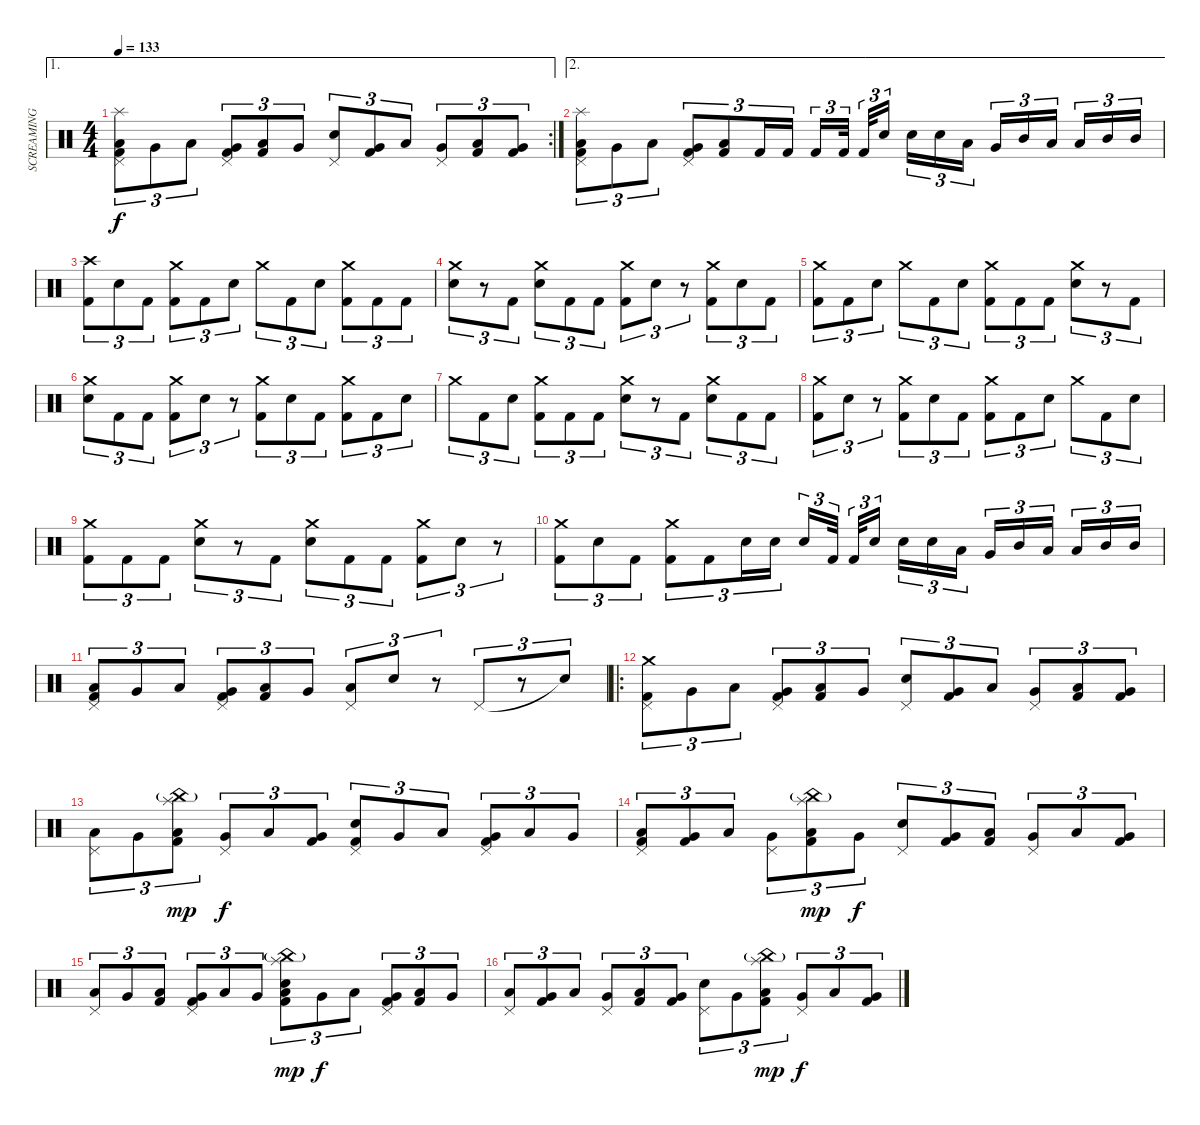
\track ("SCREAMING TOASTER OVEN" "SCREAMING ") {instrument percussion}
\staff {score}
\articulation defaults
\ae 1
\rc 2
\ts (4 4)
\tempo 133
\clef neutral
\ks c
("Splash (hit)" "Pedal Hi-Hat (hit)" "Low Floor Tom (hit)" "Kick (hit) 2").8{tu (3 2) dy f} "Very Low Tom (hit)".8{tu (3 2)} "Low Floor Tom (hit)".8{tu (3 2)} ("Pedal Hi-Hat (hit)" "Very Low Tom (hit)" "Kick (hit) 2").8{tu (3 2)} ("Low Floor Tom (hit)" "Kick (hit) 2").8{tu (3 2)} "Very Low Tom (hit)".8{tu (3 2)} ("Pedal Hi-Hat (hit)" "Electric Snare (hit)").8{tu (3 2)} ("Very Low Tom (hit)" "Kick (hit) 2").8{tu (3 2)} "Low Floor Tom (hit)".8{tu (3 2)} ("Pedal Hi-Hat (hit)" "Very Low Tom (hit)").8{tu (3 2)} ("Low Floor Tom (hit)" "Kick (hit) 2").8{tu (3 2)} ("Very Low Tom (hit)" "Kick (hit) 2").8{tu (3 2)} |
\ae 2
("Splash (hit)" "Pedal Hi-Hat (hit)" "Low Floor Tom (hit)" "Kick (hit) 2").8{tu (3 2)} "Very Low Tom (hit)".8{tu (3 2)} "Low Floor Tom (hit)".8{tu (3 2)} ("Pedal Hi-Hat (hit)" "Very Low Tom (hit)" "Kick (hit) 2").8{tu (3 2)} ("Low Floor Tom (hit)" "Kick (hit) 2").8{tu (3 2)} "Kick (hit) 2".16{tu (3 2)} "Kick (hit) 2".16{tu (3 2)} "Kick (hit) 2".16{tu (3 2)} "Kick (hit) 2".32{tu (3 2) beam splitsecondary} "Kick (hit) 2".32{tu (3 2)} "Electric Snare (hit)".16{tu (3 2) beam splitsecondary} "Electric Snare (hit)".16{tu (3 2)} "Electric Snare (hit)".16{tu (3 2)} "Low Tom (hit)".16{tu (3 2)} "Very Low Tom (hit)".16{tu (3 2)} "Mid Tom (hit)".16{tu (3 2)} "Low Tom (hit)".16{tu (3 2) beam splitsecondary} "Low Floor Tom (hit)".16{tu (3 2)} "Mid Tom (hit)".16{tu (3 2)} "Mid Tom (hit)".16{tu (3 2)} |
("Crash high (hit)" "Kick (hit) 2").8{tu (3 2)} "Electric Snare (hit)".8{tu (3 2)} "Kick (hit) 2".8{tu (3 2)} ("Crash medium (hit)" "Kick (hit) 2").8{tu (3 2)} "Kick (hit) 2".8{tu (3 2)} "Electric Snare (hit)".8{tu (3 2)} "Crash medium (hit)".8{tu (3 2)} "Kick (hit) 2".8{tu (3 2)} "Electric Snare (hit)".8{tu (3 2)} ("Crash medium (hit)" "Kick (hit) 2").8{tu (3 2)} "Kick (hit) 2".8{tu (3 2)} "Kick (hit) 2".8{tu (3 2)} |
("Crash medium (hit)" "Electric Snare (hit)").8{tu (3 2)} r.8{tu (3 2)} "Kick (hit) 2".8{tu (3 2)} ("Crash medium (hit)" "Electric Snare (hit)").8{tu (3 2)} "Kick (hit) 2".8{tu (3 2)} "Kick (hit) 2".8{tu (3 2)} ("Crash medium (hit)" "Kick (hit) 2").8{tu (3 2)} "Electric Snare (hit)".8{tu (3 2)} r.8{tu (3 2)} ("Crash medium (hit)" "Kick (hit) 2").8{tu (3 2)} "Electric Snare (hit)".8{tu (3 2)} "Kick (hit) 2".8{tu (3 2)} |
("Crash medium (hit)" "Kick (hit) 2").8{tu (3 2)} "Kick (hit) 2".8{tu (3 2)} "Electric Snare (hit)".8{tu (3 2)} "Crash medium (hit)".8{tu (3 2)} "Kick (hit) 2".8{tu (3 2)} "Electric Snare (hit)".8{tu (3 2)} ("Crash medium (hit)" "Kick (hit) 2").8{tu (3 2)} "Kick (hit) 2".8{tu (3 2)} "Kick (hit) 2".8{tu (3 2)} ("Crash medium (hit)" "Electric Snare (hit)").8{tu (3 2)} r.8{tu (3 2)} "Kick (hit) 2".8{tu (3 2)} |
("Crash medium (hit)" "Electric Snare (hit)").8{tu (3 2)} "Kick (hit) 2".8{tu (3 2)} "Kick (hit) 2".8{tu (3 2)} ("Crash medium (hit)" "Kick (hit) 2").8{tu (3 2)} "Electric Snare (hit)".8{tu (3 2)} r.8{tu (3 2)} ("Crash medium (hit)" "Kick (hit) 2").8{tu (3 2)} "Electric Snare (hit)".8{tu (3 2)} "Kick (hit) 2".8{tu (3 2)} ("Crash medium (hit)" "Kick (hit) 2").8{tu (3 2)} "Kick (hit) 2".8{tu (3 2)} "Electric Snare (hit)".8{tu (3 2)} |
"Crash medium (hit)".8{tu (3 2)} "Kick (hit) 2".8{tu (3 2)} "Electric Snare (hit)".8{tu (3 2)} ("Crash medium (hit)" "Kick (hit) 2").8{tu (3 2)} "Kick (hit) 2".8{tu (3 2)} "Kick (hit) 2".8{tu (3 2)} ("Crash medium (hit)" "Electric Snare (hit)").8{tu (3 2)} r.8{tu (3 2)} "Kick (hit) 2".8{tu (3 2)} ("Crash medium (hit)" "Electric Snare (hit)").8{tu (3 2)} "Kick (hit) 2".8{tu (3 2)} "Kick (hit) 2".8{tu (3 2)} |
("Crash medium (hit)" "Kick (hit) 2").8{tu (3 2)} "Electric Snare (hit)".8{tu (3 2)} r.8{tu (3 2)} ("Crash medium (hit)" "Kick (hit) 2").8{tu (3 2)} "Electric Snare (hit)".8{tu (3 2)} "Kick (hit) 2".8{tu (3 2)} ("Crash medium (hit)" "Kick (hit) 2").8{tu (3 2)} "Kick (hit) 2".8{tu (3 2)} "Electric Snare (hit)".8{tu (3 2)} "Crash medium (hit)".8{tu (3 2)} "Kick (hit) 2".8{tu (3 2)} "Electric Snare (hit)".8{tu (3 2)} |
("Crash medium (hit)" "Kick (hit) 2").8{tu (3 2)} "Kick (hit) 2".8{tu (3 2)} "Kick (hit) 2".8{tu (3 2)} ("Crash medium (hit)" "Electric Snare (hit)").8{tu (3 2)} r.8{tu (3 2)} "Kick (hit) 2".8{tu (3 2)} ("Crash medium (hit)" "Electric Snare (hit)").8{tu (3 2)} "Kick (hit) 2".8{tu (3 2)} "Kick (hit) 2".8{tu (3 2)} ("Crash medium (hit)" "Kick (hit) 2").8{tu (3 2)} "Electric Snare (hit)".8{tu (3 2)} r.8{tu (3 2)} |
("Crash medium (hit)" "Kick (hit) 2").8{tu (3 2)} "Electric Snare (hit)".8{tu (3 2)} "Kick (hit) 2".8{tu (3 2)} ("Crash medium (hit)" "Kick (hit) 2").8{tu (3 2)} "Kick (hit) 2".8{tu (3 2)} "Electric Snare (hit)".16{tu (3 2)} "Electric Snare (hit)".16{tu (3 2)} "Electric Snare (hit)".16{tu (3 2)} "Kick (hit) 2".32{tu (3 2) beam splitsecondary} "Kick (hit) 2".32{tu (3 2)} "Electric Snare (hit)".16{tu (3 2) beam splitsecondary} "Electric Snare (hit)".16{tu (3 2)} "Electric Snare (hit)".16{tu (3 2)} "Low Tom (hit)".16{tu (3 2)} "Very Low Tom (hit)".16{tu (3 2)} "Mid Tom (hit)".16{tu (3 2)} "Low Tom (hit)".16{tu (3 2) beam splitsecondary} "Low Floor Tom (hit)".16{tu (3 2)} "Mid Tom (hit)".16{tu (3 2)} "Mid Tom (hit)".16{tu (3 2)} |
("Pedal Hi-Hat (hit)" "Low Floor Tom (hit)" "Kick (hit) 2").8{tu (3 2)} "Very Low Tom (hit)".8{tu (3 2)} "Low Floor Tom (hit)".8{tu (3 2)} ("Pedal Hi-Hat (hit)" "Very Low Tom (hit)" "Kick (hit) 2").8{tu (3 2)} ("Low Floor Tom (hit)" "Kick (hit) 2").8{tu (3 2)} "Very Low Tom (hit)".8{tu (3 2)} ("Pedal Hi-Hat (hit)" "Low Floor Tom (hit)").8{tu (3 2)} "Electric Snare (hit)".8{tu (3 2)} r.8{tu (3 2)} "Pedal Hi-Hat (hit)".8{tu (3 2)} r.8{tu (3 2)} "Snare (hit)"{t}.8{tu (3 2)} |
\ro
("Crash medium (hit)" "Pedal Hi-Hat (hit)" "Kick (hit) 2").8{tu (3 2)} "Very Low Tom (hit)".8{tu (3 2)} "Low Floor Tom (hit)".8{tu (3 2)} ("Pedal Hi-Hat (hit)" "Very Low Tom (hit)" "Kick (hit) 2").8{tu (3 2)} ("Low Floor Tom (hit)" "Kick (hit) 2").8{tu (3 2)} "Very Low Tom (hit)".8{tu (3 2)} ("Pedal Hi-Hat (hit)" "Electric Snare (hit)").8{tu (3 2)} ("Very Low Tom (hit)" "Kick (hit) 2").8{tu (3 2)} "Low Floor Tom (hit)".8{tu (3 2)} ("Pedal Hi-Hat (hit)" "Very Low Tom (hit)").8{tu (3 2)} ("Low Floor Tom (hit)" "Kick (hit) 2").8{tu (3 2)} ("Very Low Tom (hit)" "Kick (hit) 2").8{tu (3 2)} |
("Pedal Hi-Hat (hit)" "Low Floor Tom (hit)").8{tu (3 2)} "Very Low Tom (hit)".8{tu (3 2)} ("China (hit)"{g} "Splash (hit)" "Low Floor Tom (hit)" "Kick (hit) 2").8{tu (3 2) dy mp} ("Pedal Hi-Hat (hit)" "Very Low Tom (hit)").8{tu (3 2) dy f} "Low Floor Tom (hit)".8{tu (3 2)} ("Very Low Tom (hit)" "Kick (hit) 2").8{tu (3 2)} ("Pedal Hi-Hat (hit)" "Electric Snare (hit)" "Kick (hit) 2").8{tu (3 2)} "Very Low Tom (hit)".8{tu (3 2)} "Low Floor Tom (hit)".8{tu (3 2)} ("Pedal Hi-Hat (hit)" "Very Low Tom (hit)" "Kick (hit) 2").8{tu (3 2)} "Low Floor Tom (hit)".8{tu (3 2)} "Very Low Tom (hit)".8{tu (3 2)} |
("Pedal Hi-Hat (hit)" "Low Floor Tom (hit)" "Kick (hit) 2").8{tu (3 2)} ("Very Low Tom (hit)" "Kick (hit) 2").8{tu (3 2)} "Low Floor Tom (hit)".8{tu (3 2)} ("Pedal Hi-Hat (hit)" "Very Low Tom (hit)").8{tu (3 2)} ("China (hit)"{g} "Splash (hit)" "Low Floor Tom (hit)" "Kick (hit) 2").8{tu (3 2) dy mp} "Very Low Tom (hit)".8{tu (3 2) dy f} ("Pedal Hi-Hat (hit)" "Electric Snare (hit)").8{tu (3 2)} ("Very Low Tom (hit)" "Kick (hit) 2").8{tu (3 2)} ("Low Floor Tom (hit)" "Kick (hit) 2").8{tu (3 2)} ("Pedal Hi-Hat (hit)" "Very Low Tom (hit)").8{tu (3 2)} "Low Floor Tom (hit)".8{tu (3 2)} ("Very Low Tom (hit)" "Kick (hit) 2").8{tu (3 2)} |
("Pedal Hi-Hat (hit)" "Low Floor Tom (hit)").8{tu (3 2)} "Very Low Tom (hit)".8{tu (3 2)} ("Low Floor Tom (hit)" "Kick (hit) 2").8{tu (3 2)} ("Pedal Hi-Hat (hit)" "Very Low Tom (hit)" "Kick (hit) 2").8{tu (3 2)} "Low Floor Tom (hit)".8{tu (3 2)} "Very Low Tom (hit)".8{tu (3 2)} ("China (hit)"{g} "Splash (hit)" "Electric Snare (hit)" "Low Floor Tom (hit)" "Kick (hit) 2").8{tu (3 2) dy mp} "Very Low Tom (hit)".8{tu (3 2) dy f} "Low Floor Tom (hit)".8{tu (3 2)} ("Pedal Hi-Hat (hit)" "Very Low Tom (hit)" "Kick (hit) 2").8{tu (3 2)} ("Low Floor Tom (hit)" "Kick (hit) 2").8{tu (3 2)} "Very Low Tom (hit)".8{tu (3 2)} |
("Pedal Hi-Hat (hit)" "Low Floor Tom (hit)").8{tu (3 2)} ("Very Low Tom (hit)" "Kick (hit) 2").8{tu (3 2)} "Low Floor Tom (hit)".8{tu (3 2)} ("Pedal Hi-Hat (hit)" "Very Low Tom (hit)").8{tu (3 2)} ("Low Floor Tom (hit)" "Kick (hit) 2").8{tu (3 2)} ("Very Low Tom (hit)" "Kick (hit) 2").8{tu (3 2)} ("Pedal Hi-Hat (hit)" "Electric Snare (hit)").8{tu (3 2)} "Very Low Tom (hit)".8{tu (3 2)} ("China (hit)"{g} "Splash (hit)" "Low Floor Tom (hit)" "Kick (hit) 2").8{tu (3 2) dy mp} ("Pedal Hi-Hat (hit)" "Very Low Tom (hit)").8{tu (3 2) dy f} "Low Floor Tom (hit)".8{tu (3 2)} ("Very Low Tom (hit)" "Kick (hit) 2").8{tu (3 2)}
